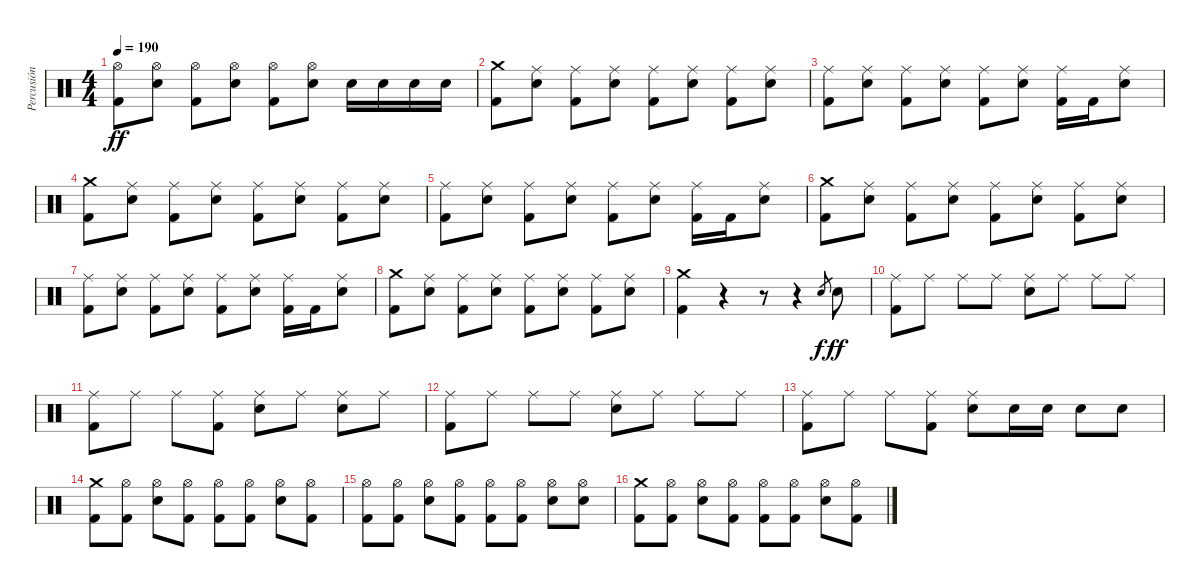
\track ("Percusión" "Percusión") {instrument percussion}
\staff {score}
\articulation defaults
\ts (4 4)
\tempo 190
\clef neutral
\ks c
("Hi-Hat (open)" "Kick (hit) 2").8{dy ff} ("Hi-Hat (open)" "Snare (hit) 2").8 ("Hi-Hat (open)" "Kick (hit) 2").8 ("Hi-Hat (open)" "Snare (hit) 2").8 ("Hi-Hat (open)" "Kick (hit) 2").8 ("Hi-Hat (open)" "Snare (hit) 2").8 "Snare (hit) 2".16 "Snare (hit) 2".16 "Snare (hit) 2".16 "Snare (hit) 2".16 |
("Crash medium (hit)" "Kick (hit) 2").8 ("Ride (middle)" "Snare (hit) 2").8 ("Ride (middle)" "Kick (hit) 2").8 ("Ride (middle)" "Snare (hit) 2").8 ("Ride (middle)" "Kick (hit) 2").8 ("Ride (middle)" "Snare (hit) 2").8 ("Ride (middle)" "Kick (hit) 2").8 ("Ride (middle)" "Snare (hit) 2").8 |
("Ride (middle)" "Kick (hit) 2").8 ("Ride (middle)" "Snare (hit) 2").8 ("Ride (middle)" "Kick (hit) 2").8 ("Ride (middle)" "Snare (hit) 2").8 ("Ride (middle)" "Kick (hit) 2").8 ("Ride (middle)" "Snare (hit) 2").8 ("Ride (middle)" "Kick (hit) 2").16 "Kick (hit) 2".16 ("Ride (middle)" "Snare (hit) 2").8 |
("Crash medium (hit)" "Kick (hit) 2").8 ("Ride (middle)" "Snare (hit) 2").8 ("Ride (middle)" "Kick (hit) 2").8 ("Ride (middle)" "Snare (hit) 2").8 ("Ride (middle)" "Kick (hit) 2").8 ("Ride (middle)" "Snare (hit) 2").8 ("Ride (middle)" "Kick (hit) 2").8 ("Ride (middle)" "Snare (hit) 2").8 |
("Ride (middle)" "Kick (hit) 2").8 ("Ride (middle)" "Snare (hit) 2").8 ("Ride (middle)" "Kick (hit) 2").8 ("Ride (middle)" "Snare (hit) 2").8 ("Ride (middle)" "Kick (hit) 2").8 ("Ride (middle)" "Snare (hit) 2").8 ("Ride (middle)" "Kick (hit) 2").16 "Kick (hit) 2".16 ("Ride (middle)" "Snare (hit) 2").8 |
("Crash medium (hit)" "Kick (hit) 2").8 ("Ride (middle)" "Snare (hit) 2").8 ("Ride (middle)" "Kick (hit) 2").8 ("Ride (middle)" "Snare (hit) 2").8 ("Ride (middle)" "Kick (hit) 2").8 ("Ride (middle)" "Snare (hit) 2").8 ("Ride (middle)" "Kick (hit) 2").8 ("Ride (middle)" "Snare (hit) 2").8 |
("Ride (middle)" "Kick (hit) 2").8 ("Ride (middle)" "Snare (hit) 2").8 ("Ride (middle)" "Kick (hit) 2").8 ("Ride (middle)" "Snare (hit) 2").8 ("Ride (middle)" "Kick (hit) 2").8 ("Ride (middle)" "Snare (hit) 2").8 ("Ride (middle)" "Kick (hit) 2").16 "Kick (hit) 2".16 ("Ride (middle)" "Snare (hit) 2").8 |
("Crash medium (hit)" "Kick (hit) 2").8 ("Ride (middle)" "Snare (hit) 2").8 ("Ride (middle)" "Kick (hit) 2").8 ("Ride (middle)" "Snare (hit) 2").8 ("Ride (middle)" "Kick (hit) 2").8 ("Ride (middle)" "Snare (hit) 2").8 ("Ride (middle)" "Kick (hit) 2").8 ("Ride (middle)" "Snare (hit) 2").8 |
("Crash medium (hit)" "Kick (hit) 2").4 r.4 r.8 r.4 "Snare (hit) 2".8{gr dy f} "Snare (hit) 2".8{dy ff} |
("Ride (middle)" "Kick (hit) 2").8 "Ride (middle)".8 "Ride (middle)".8 "Ride (middle)".8 ("Ride (middle)" "Snare (hit) 2").8 "Ride (middle)".8 "Ride (middle)".8 "Ride (middle)".8 |
("Ride (middle)" "Kick (hit) 2").8 "Ride (middle)".8 "Ride (middle)".8 ("Ride (middle)" "Kick (hit) 2").8 ("Ride (middle)" "Snare (hit) 2").8 "Ride (middle)".8 ("Ride (middle)" "Snare (hit) 2").8 "Ride (middle)".8 |
("Ride (middle)" "Kick (hit) 2").8 "Ride (middle)".8 "Ride (middle)".8 "Ride (middle)".8 ("Ride (middle)" "Snare (hit) 2").8 "Ride (middle)".8 "Ride (middle)".8 "Ride (middle)".8 |
("Ride (middle)" "Kick (hit) 2").8 "Ride (middle)".8 "Ride (middle)".8 ("Ride (middle)" "Kick (hit) 2").8 ("Ride (middle)" "Snare (hit) 2").8 "Snare (hit) 2".16 "Snare (hit) 2".16 "Snare (hit) 2".8 "Snare (hit) 2".8 |
("Crash medium (hit)" "Kick (hit) 2").8 ("Hi-Hat (open)" "Kick (hit) 2").8 ("Hi-Hat (open)" "Snare (hit) 2").8 ("Hi-Hat (open)" "Kick (hit) 2").8 ("Hi-Hat (open)" "Kick (hit) 2").8 ("Hi-Hat (open)" "Kick (hit) 2").8 ("Hi-Hat (open)" "Snare (hit) 2").8 ("Hi-Hat (open)" "Kick (hit) 2").8 |
("Hi-Hat (open)" "Kick (hit) 2").8 ("Hi-Hat (open)" "Kick (hit) 2").8 ("Hi-Hat (open)" "Snare (hit) 2").8 ("Hi-Hat (open)" "Kick (hit) 2").8 ("Hi-Hat (open)" "Kick (hit) 2").8 ("Hi-Hat (open)" "Kick (hit) 2").8 ("Hi-Hat (open)" "Snare (hit) 2").8 ("Hi-Hat (open)" "Snare (hit) 2").8 |
("Crash medium (hit)" "Kick (hit) 2").8 ("Hi-Hat (open)" "Kick (hit) 2").8 ("Hi-Hat (open)" "Snare (hit) 2").8 ("Hi-Hat (open)" "Kick (hit) 2").8 ("Hi-Hat (open)" "Kick (hit) 2").8 ("Hi-Hat (open)" "Kick (hit) 2").8 ("Hi-Hat (open)" "Snare (hit) 2").8 ("Hi-Hat (open)" "Kick (hit) 2").8
